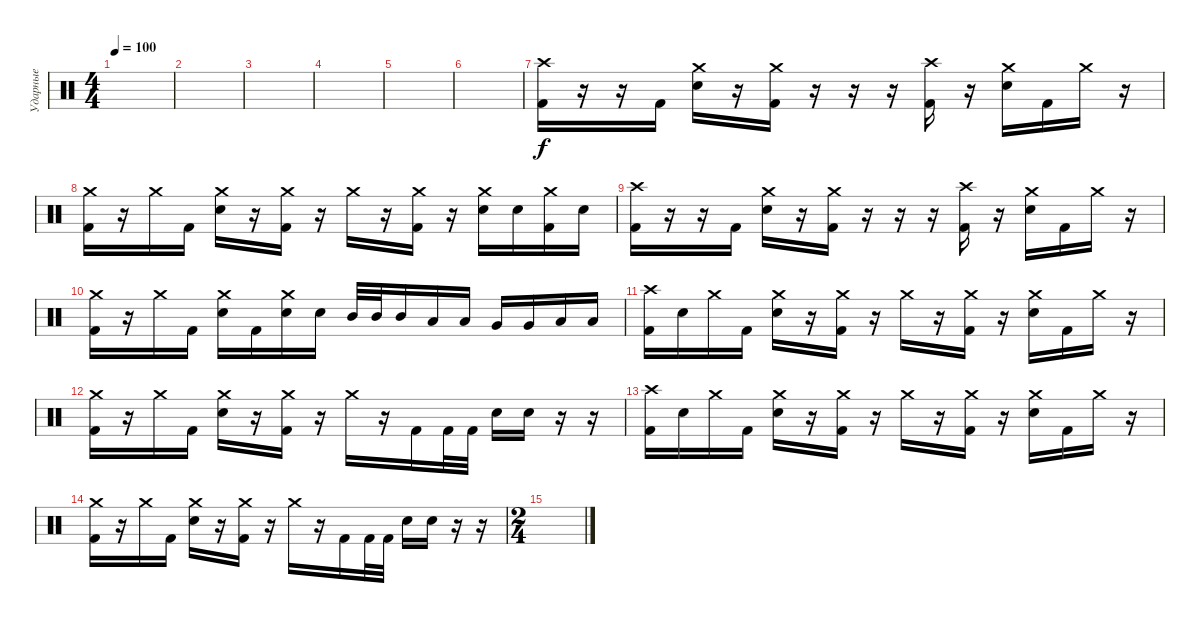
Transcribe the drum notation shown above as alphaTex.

\track ("Ударные" "Ударные") {instrument percussion}
\staff {score}
\articulation defaults
\ts (4 4)
\tempo 100
\clef neutral
\ks c
|
|
|
|
|
|
("Crash high (hit)" "Kick (hit) 2").16 r.16 r.16 "Kick (hit) 2".16 ("Crash medium (hit)" "Electric Snare (hit)").16 r.16 ("Crash medium (hit)" "Kick (hit) 2").16 r.16 r.16 r.16 ("Crash high (hit)" "Kick (hit) 2").16 r.16 ("Crash medium (hit)" "Electric Snare (hit)").16 "Kick (hit) 2".16 "Crash medium (hit)".16 r.16 |
("Crash medium (hit)" "Kick (hit) 2").16 r.16 "Crash medium (hit)".16 "Kick (hit) 2".16 ("Crash medium (hit)" "Electric Snare (hit)").16 r.16 ("Crash medium (hit)" "Kick (hit) 2").16 r.16 "Crash medium (hit)".16 r.16 ("Crash medium (hit)" "Kick (hit) 2").16 r.16 ("Crash medium (hit)" "Electric Snare (hit)").16 "Electric Snare (hit)".16 ("Crash medium (hit)" "Kick (hit) 2").16 "Electric Snare (hit)".16 |
("Crash high (hit)" "Kick (hit) 2").16 r.16 r.16 "Kick (hit) 2".16 ("Crash medium (hit)" "Electric Snare (hit)").16 r.16 ("Crash medium (hit)" "Kick (hit) 2").16 r.16 r.16 r.16 ("Crash high (hit)" "Kick (hit) 2").16 r.16 ("Crash medium (hit)" "Electric Snare (hit)").16 "Kick (hit) 2".16 "Crash medium (hit)".16 r.16 |
("Crash medium (hit)" "Kick (hit) 2").16 r.16 "Crash medium (hit)".16 "Kick (hit) 2".16 ("Crash medium (hit)" "Electric Snare (hit)").16 "Kick (hit) 2".16 ("Crash medium (hit)" "Electric Snare (hit)").16 "Electric Snare (hit)".16 "Mid Tom (hit)".32 "Mid Tom (hit)".32 "Mid Tom (hit)".16 "Low Tom (hit)".16 "Low Tom (hit)".16 "Very Low Tom (hit)".16 "Very Low Tom (hit)".16 "Low Floor Tom (hit)".16 "Low Floor Tom (hit)".16 |
("Crash high (hit)" "Kick (hit) 2").16 "Electric Snare (hit)".16 "Crash medium (hit)".16 "Kick (hit) 2".16 ("Crash medium (hit)" "Electric Snare (hit)").16 r.16 ("Crash medium (hit)" "Kick (hit) 2").16 r.16 "Crash medium (hit)".16 r.16 ("Crash medium (hit)" "Kick (hit) 2").16 r.16 ("Crash medium (hit)" "Electric Snare (hit)").16 "Kick (hit) 2".16 "Crash medium (hit)".16 r.16 |
("Crash medium (hit)" "Kick (hit) 2").16 r.16 "Crash medium (hit)".16 "Kick (hit) 2".16 ("Crash medium (hit)" "Electric Snare (hit)").16 r.16 ("Crash medium (hit)" "Kick (hit) 2").16 r.16 "Crash medium (hit)".16 r.16 "Kick (hit) 2".16 "Kick (hit) 2".32 "Kick (hit) 2".32 "Electric Snare (hit)".16 "Electric Snare (hit)".16 r.16 r.16 |
("Crash high (hit)" "Kick (hit) 2").16 "Electric Snare (hit)".16 "Crash medium (hit)".16 "Kick (hit) 2".16 ("Crash medium (hit)" "Electric Snare (hit)").16 r.16 ("Crash medium (hit)" "Kick (hit) 2").16 r.16 "Crash medium (hit)".16 r.16 ("Crash medium (hit)" "Kick (hit) 2").16 r.16 ("Crash medium (hit)" "Electric Snare (hit)").16 "Kick (hit) 2".16 "Crash medium (hit)".16 r.16 |
("Crash medium (hit)" "Kick (hit) 2").16 r.16 "Crash medium (hit)".16 "Kick (hit) 2".16 ("Crash medium (hit)" "Electric Snare (hit)").16 r.16 ("Crash medium (hit)" "Kick (hit) 2").16 r.16 "Crash medium (hit)".16 r.16 "Kick (hit) 2".16 "Kick (hit) 2".32 "Kick (hit) 2".32 "Electric Snare (hit)".16 "Electric Snare (hit)".16 r.16 r.16 |
\ts (2 4)
